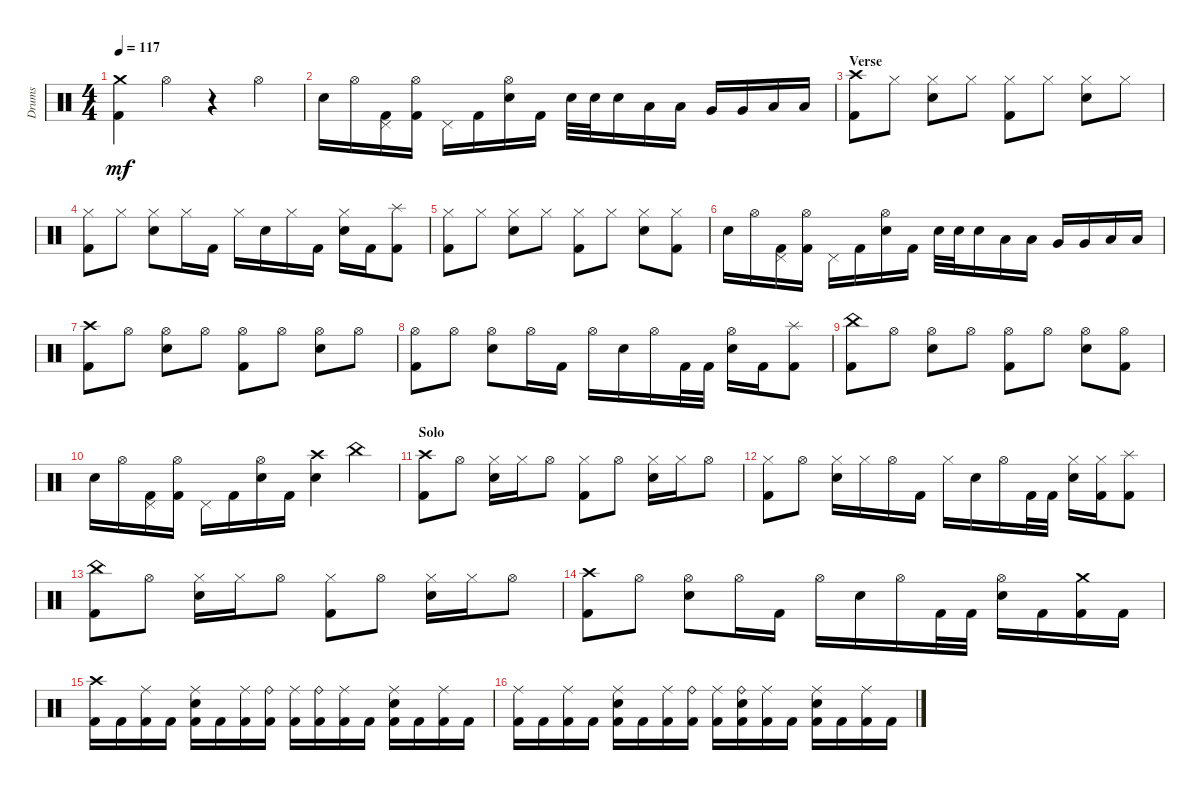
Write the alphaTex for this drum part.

\track ("Drums" "Drums") {instrument percussion}
\staff {score}
\articulation defaults
\ts (4 4)
\tempo 117
\clef neutral
\ks aminor
("Crash medium (hit)" "Kick (hit) 2").4{dy mf} "Hi-Hat (open)".4 r.4 "Hi-Hat (open)".4 |
"Snare (hit) 2".16 "Hi-Hat (open)".16 ("Kick (hit) 2" "Pedal Hi-Hat (hit)").16 ("Kick (hit) 2" "Hi-Hat (open)").16 "Pedal Hi-Hat (hit)".16 "Kick (hit) 2".16 ("Snare (hit) 2" "Hi-Hat (open)").16 "Kick (hit) 2".16 "Snare (hit) 2".32 "Snare (hit) 2".32 "Snare (hit) 2".16 "Low Tom (hit)".16 "Low Tom (hit)".16 "Very Low Tom (hit)".16 "Very Low Tom (hit)".16 "Low Floor Tom (hit)".16 "Low Floor Tom (hit)".16 |
\section ("" "Verse")
("Crash high (hit)" "Kick (hit) 2").8 "Hi-Hat (closed)".8 ("Snare (hit) 2" "Hi-Hat (closed)").8 "Hi-Hat (closed)".8 ("Kick (hit) 2" "Hi-Hat (closed)").8 "Hi-Hat (closed)".8 ("Snare (hit) 2" "Hi-Hat (closed)").8 "Hi-Hat (closed)".8 |
("Kick (hit) 2" "Hi-Hat (closed)").8 "Hi-Hat (closed)".8 ("Snare (hit) 2" "Hi-Hat (closed)").8 "Hi-Hat (closed)".16 "Kick (hit) 2".16 "Hi-Hat (closed)".16 "Snare (hit) 2".16 "Hi-Hat (closed)".16 "Kick (hit) 2".16 ("Snare (hit) 2" "Hi-Hat (closed)").16 "Kick (hit) 2".16 ("Splash (hit)" "Kick (hit) 2").8 |
("Kick (hit) 2" "Hi-Hat (closed)").8 "Hi-Hat (closed)".8 ("Hi-Hat (closed)" "Snare (hit) 2").8 "Hi-Hat (closed)".8 ("Kick (hit) 2" "Hi-Hat (closed)").8 "Hi-Hat (closed)".8 ("Hi-Hat (closed)" "Snare (hit) 2").8 ("Hi-Hat (closed)" "Kick (hit) 2").8 |
"Snare (hit) 2".16 "Hi-Hat (open)".16 ("Kick (hit) 2" "Pedal Hi-Hat (hit)").16 ("Hi-Hat (open)" "Kick (hit) 2").16 "Pedal Hi-Hat (hit)".16 "Kick (hit) 2".16 ("Snare (hit) 2" "Hi-Hat (open)").16 "Kick (hit) 2".16 "Snare (hit) 2".32 "Snare (hit) 2".32 "Snare (hit) 2".16 "Low Tom (hit)".16 "Low Tom (hit)".16 "Very Low Tom (hit)".16 "Very Low Tom (hit)".16 "Low Floor Tom (hit)".16 "Low Floor Tom (hit)".16 |
("Crash high (hit)" "Kick (hit) 2").8 "Hi-Hat (open)".8 ("Snare (hit) 2" "Hi-Hat (open)").8 "Hi-Hat (open)".8 ("Hi-Hat (open)" "Kick (hit) 2").8 "Hi-Hat (open)".8 ("Snare (hit) 2" "Hi-Hat (open)").8 "Hi-Hat (open)".8 |
("Kick (hit) 2" "Hi-Hat (open)").8 "Hi-Hat (open)".8 ("Snare (hit) 2" "Hi-Hat (open)").8 "Hi-Hat (open)".16 "Kick (hit) 2".16 "Hi-Hat (open)".16 "Snare (hit) 2".16 "Hi-Hat (open)".16 "Kick (hit) 2".32 "Kick (hit) 2".32 ("Snare (hit) 2" "Hi-Hat (open)").16 "Kick (hit) 2".16 ("Kick (hit) 2" "Splash (hit)").8 |
("Kick (hit) 2" "China (hit)").8 "Hi-Hat (open)".8 ("Snare (hit) 2" "Hi-Hat (open)").8 "Hi-Hat (open)".8 ("Hi-Hat (open)" "Kick (hit) 2").8 "Hi-Hat (open)".8 ("Hi-Hat (open)" "Snare (hit) 2").8 ("Hi-Hat (open)" "Kick (hit) 2").8 |
"Snare (hit) 2".16 "Hi-Hat (open)".16 ("Kick (hit) 2" "Pedal Hi-Hat (hit)").16 ("Hi-Hat (open)" "Kick (hit) 2").16 "Pedal Hi-Hat (hit)".16 "Kick (hit) 2".16 ("Hi-Hat (open)" "Snare (hit) 2").16 "Kick (hit) 2".16 ("Crash high (hit)" "Snare (hit) 2").4 "China (hit)".4 |
\section ("" "Solo")
("Kick (hit) 2" "Crash high (hit)").8 "Hi-Hat (open)".8 ("Snare (hit) 2" "Hi-Hat (closed)").16 "Hi-Hat (closed)".16 "Hi-Hat (open)".8 ("Hi-Hat (closed)" "Kick (hit) 2").8 "Hi-Hat (open)".8 ("Snare (hit) 2" "Hi-Hat (closed)").16 "Hi-Hat (closed)".16 "Hi-Hat (open)".8 |
("Hi-Hat (closed)" "Kick (hit) 2").8 "Hi-Hat (open)".8 ("Snare (hit) 2" "Hi-Hat (closed)").16 "Hi-Hat (closed)".16 "Hi-Hat (open)".16 "Kick (hit) 2".16 "Hi-Hat (closed)".16 "Snare (hit) 2".16 "Hi-Hat (open)".16 "Kick (hit) 2".32 "Kick (hit) 2".32 ("Hi-Hat (closed)" "Snare (hit) 2").16 ("Kick (hit) 2" "Hi-Hat (closed)").16 ("Kick (hit) 2" "Splash (hit)").8 |
("China (hit)" "Kick (hit) 2").8 "Hi-Hat (open)".8 ("Snare (hit) 2" "Hi-Hat (closed)").16 "Hi-Hat (closed)".16 "Hi-Hat (open)".8 ("Kick (hit) 2" "Hi-Hat (closed)").8 "Hi-Hat (open)".8 ("Snare (hit) 2" "Hi-Hat (closed)").16 "Hi-Hat (closed)".16 "Hi-Hat (open)".8 |
("Kick (hit) 2" "Crash high (hit)").8 "Hi-Hat (open)".8 ("Hi-Hat (open)" "Snare (hit) 2").8 "Hi-Hat (open)".16 "Kick (hit) 2".16 "Hi-Hat (open)".16 "Snare (hit) 2".16 "Hi-Hat (open)".16 "Kick (hit) 2".32 "Kick (hit) 2".32 ("Snare (hit) 2" "Hi-Hat (open)").16 "Kick (hit) 2".16 ("Kick (hit) 2" "Crash medium (hit)").16 "Kick (hit) 2".16 |
("Crash high (hit)" "Kick (hit) 2").16 "Kick (hit) 2".16 ("Ride (middle)" "Kick (hit) 2").16 "Kick (hit) 2".16 ("Snare (hit) 2" "Ride (middle)" "Kick (hit) 2").16 "Kick (hit) 2".16 ("Ride (middle)" "Kick (hit) 2").16 ("Ride (bell)" "Kick (hit) 2").16 ("Kick (hit) 2" "Ride (middle)").16 ("Kick (hit) 2" "Ride (bell)").16 ("Kick (hit) 2" "Ride (middle)").16 "Kick (hit) 2".16 ("Kick (hit) 2" "Snare (hit) 2" "Ride (middle)").16 "Kick (hit) 2".16 ("Kick (hit) 2" "Ride (middle)").16 "Kick (hit) 2".16 |
("Ride (middle)" "Kick (hit) 2").16 "Kick (hit) 2".16 ("Ride (middle)" "Kick (hit) 2").16 "Kick (hit) 2".16 ("Kick (hit) 2" "Ride (middle)" "Snare (hit) 2").16 "Kick (hit) 2".16 ("Kick (hit) 2" "Ride (middle)").16 ("Ride (bell)" "Kick (hit) 2").16 ("Kick (hit) 2" "Ride (middle)").16 ("Snare (hit) 2" "Kick (hit) 2" "Ride (bell)").16 ("Kick (hit) 2" "Ride (middle)").16 "Kick (hit) 2".16 ("Ride (middle)" "Kick (hit) 2" "Snare (hit) 2").16 "Kick (hit) 2".16 ("Ride (middle)" "Kick (hit) 2").16 "Kick (hit) 2".16
